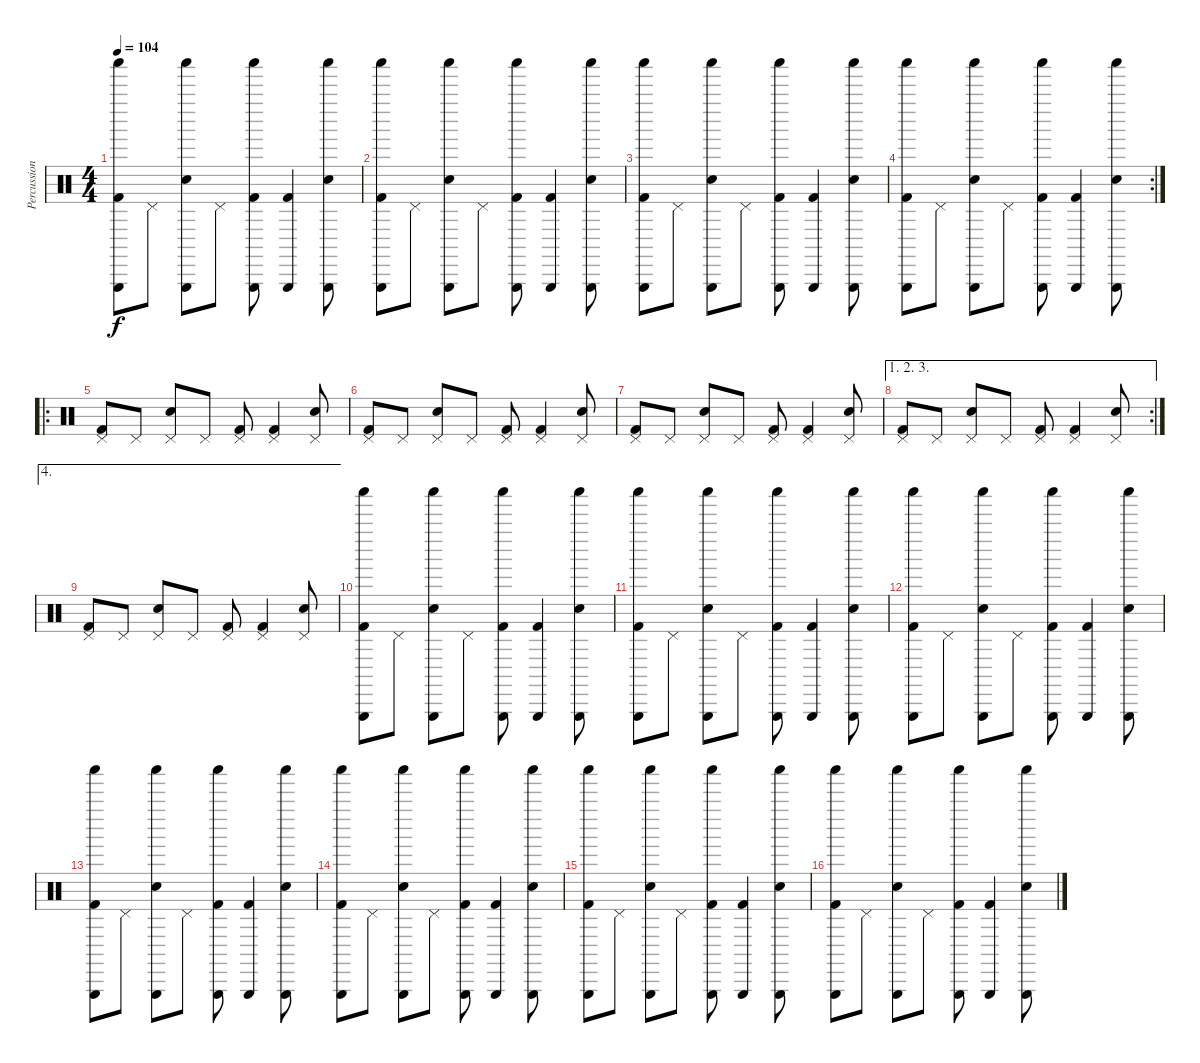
\track ("Percussion" "Percussion") {instrument percussion}
\staff {score}
\articulation defaults
\ts (4 4)
\tempo 104
\clef neutral
\ks c
("Shaker (hit)" "Kick (hit) 2" "Triangle (hit)").8{dy f} "Pedal Hi-Hat (hit)".8 ("Shaker (hit)" "Electric Snare (hit)" "Triangle (hit)").8 "Pedal Hi-Hat (hit)".8 ("Shaker (hit)" "Kick (hit) 2" "Triangle (hit)").8 ("Kick (hit) 2" "Triangle (hit)").4 ("Shaker (hit)" "Electric Snare (hit)" "Triangle (hit)").8 |
("Shaker (hit)" "Kick (hit) 2" "Triangle (hit)").8 "Pedal Hi-Hat (hit)".8 ("Shaker (hit)" "Electric Snare (hit)" "Triangle (hit)").8 "Pedal Hi-Hat (hit)".8 ("Shaker (hit)" "Kick (hit) 2" "Triangle (hit)").8 ("Kick (hit) 2" "Triangle (hit)").4 ("Shaker (hit)" "Electric Snare (hit)" "Triangle (hit)").8 |
("Shaker (hit)" "Kick (hit) 2" "Triangle (hit)").8 "Pedal Hi-Hat (hit)".8 ("Shaker (hit)" "Electric Snare (hit)" "Triangle (hit)").8 "Pedal Hi-Hat (hit)".8 ("Shaker (hit)" "Kick (hit) 2" "Triangle (hit)").8 ("Kick (hit) 2" "Triangle (hit)").4 ("Shaker (hit)" "Electric Snare (hit)" "Triangle (hit)").8 |
\rc 2
("Shaker (hit)" "Kick (hit) 2" "Triangle (hit)").8 "Pedal Hi-Hat (hit)".8 ("Shaker (hit)" "Electric Snare (hit)" "Triangle (hit)").8 "Pedal Hi-Hat (hit)".8 ("Shaker (hit)" "Kick (hit) 2" "Triangle (hit)").8 ("Kick (hit) 2" "Triangle (hit)").4 ("Shaker (hit)" "Electric Snare (hit)" "Triangle (hit)").8 |
\ro
("Pedal Hi-Hat (hit)" "Kick (hit) 2").8 "Pedal Hi-Hat (hit)".8 ("Pedal Hi-Hat (hit)" "Electric Snare (hit)").8 "Pedal Hi-Hat (hit)".8 ("Pedal Hi-Hat (hit)" "Kick (hit) 2").8 ("Pedal Hi-Hat (hit)" "Kick (hit) 2").4 ("Pedal Hi-Hat (hit)" "Electric Snare (hit)").8 |
("Pedal Hi-Hat (hit)" "Kick (hit) 2").8 "Pedal Hi-Hat (hit)".8 ("Pedal Hi-Hat (hit)" "Electric Snare (hit)").8 "Pedal Hi-Hat (hit)".8 ("Pedal Hi-Hat (hit)" "Kick (hit) 2").8 ("Pedal Hi-Hat (hit)" "Kick (hit) 2").4 ("Pedal Hi-Hat (hit)" "Electric Snare (hit)").8 |
("Pedal Hi-Hat (hit)" "Kick (hit) 2").8 "Pedal Hi-Hat (hit)".8 ("Pedal Hi-Hat (hit)" "Electric Snare (hit)").8 "Pedal Hi-Hat (hit)".8 ("Pedal Hi-Hat (hit)" "Kick (hit) 2").8 ("Pedal Hi-Hat (hit)" "Kick (hit) 2").4 ("Pedal Hi-Hat (hit)" "Electric Snare (hit)").8 |
\ae (1 2 3)
\rc 2
("Pedal Hi-Hat (hit)" "Kick (hit) 2").8 "Pedal Hi-Hat (hit)".8 ("Pedal Hi-Hat (hit)" "Electric Snare (hit)").8 "Pedal Hi-Hat (hit)".8 ("Pedal Hi-Hat (hit)" "Kick (hit) 2").8 ("Pedal Hi-Hat (hit)" "Kick (hit) 2").4 ("Pedal Hi-Hat (hit)" "Electric Snare (hit)").8 |
\ae 4
("Pedal Hi-Hat (hit)" "Kick (hit) 2").8 "Pedal Hi-Hat (hit)".8 ("Pedal Hi-Hat (hit)" "Electric Snare (hit)").8 "Pedal Hi-Hat (hit)".8 ("Pedal Hi-Hat (hit)" "Kick (hit) 2").8 ("Pedal Hi-Hat (hit)" "Kick (hit) 2").4 ("Pedal Hi-Hat (hit)" "Electric Snare (hit)").8 |
("Shaker (hit)" "Kick (hit) 2" "Triangle (hit)").8 "Pedal Hi-Hat (hit)".8 ("Shaker (hit)" "Electric Snare (hit)" "Triangle (hit)").8 "Pedal Hi-Hat (hit)".8 ("Shaker (hit)" "Kick (hit) 2" "Triangle (hit)").8 ("Kick (hit) 2" "Triangle (hit)").4 ("Shaker (hit)" "Electric Snare (hit)" "Triangle (hit)").8 |
("Shaker (hit)" "Kick (hit) 2" "Triangle (hit)").8 "Pedal Hi-Hat (hit)".8 ("Shaker (hit)" "Electric Snare (hit)" "Triangle (hit)").8 "Pedal Hi-Hat (hit)".8 ("Shaker (hit)" "Kick (hit) 2" "Triangle (hit)").8 ("Kick (hit) 2" "Triangle (hit)").4 ("Shaker (hit)" "Electric Snare (hit)" "Triangle (hit)").8 |
("Shaker (hit)" "Kick (hit) 2" "Triangle (hit)").8 "Pedal Hi-Hat (hit)".8 ("Shaker (hit)" "Electric Snare (hit)" "Triangle (hit)").8 "Pedal Hi-Hat (hit)".8 ("Shaker (hit)" "Kick (hit) 2" "Triangle (hit)").8 ("Kick (hit) 2" "Triangle (hit)").4 ("Shaker (hit)" "Electric Snare (hit)" "Triangle (hit)").8 |
("Shaker (hit)" "Kick (hit) 2" "Triangle (hit)").8 "Pedal Hi-Hat (hit)".8 ("Shaker (hit)" "Electric Snare (hit)" "Triangle (hit)").8 "Pedal Hi-Hat (hit)".8 ("Shaker (hit)" "Kick (hit) 2" "Triangle (hit)").8 ("Kick (hit) 2" "Triangle (hit)").4 ("Shaker (hit)" "Electric Snare (hit)" "Triangle (hit)").8 |
("Shaker (hit)" "Kick (hit) 2" "Triangle (hit)").8 "Pedal Hi-Hat (hit)".8 ("Shaker (hit)" "Electric Snare (hit)" "Triangle (hit)").8 "Pedal Hi-Hat (hit)".8 ("Shaker (hit)" "Kick (hit) 2" "Triangle (hit)").8 ("Kick (hit) 2" "Triangle (hit)").4 ("Shaker (hit)" "Electric Snare (hit)" "Triangle (hit)").8 |
("Shaker (hit)" "Kick (hit) 2" "Triangle (hit)").8 "Pedal Hi-Hat (hit)".8 ("Shaker (hit)" "Electric Snare (hit)" "Triangle (hit)").8 "Pedal Hi-Hat (hit)".8 ("Shaker (hit)" "Kick (hit) 2" "Triangle (hit)").8 ("Kick (hit) 2" "Triangle (hit)").4 ("Shaker (hit)" "Electric Snare (hit)" "Triangle (hit)").8 |
("Shaker (hit)" "Kick (hit) 2" "Triangle (hit)").8 "Pedal Hi-Hat (hit)".8 ("Shaker (hit)" "Electric Snare (hit)" "Triangle (hit)").8 "Pedal Hi-Hat (hit)".8 ("Shaker (hit)" "Kick (hit) 2" "Triangle (hit)").8 ("Kick (hit) 2" "Triangle (hit)").4 ("Shaker (hit)" "Electric Snare (hit)" "Triangle (hit)").8
